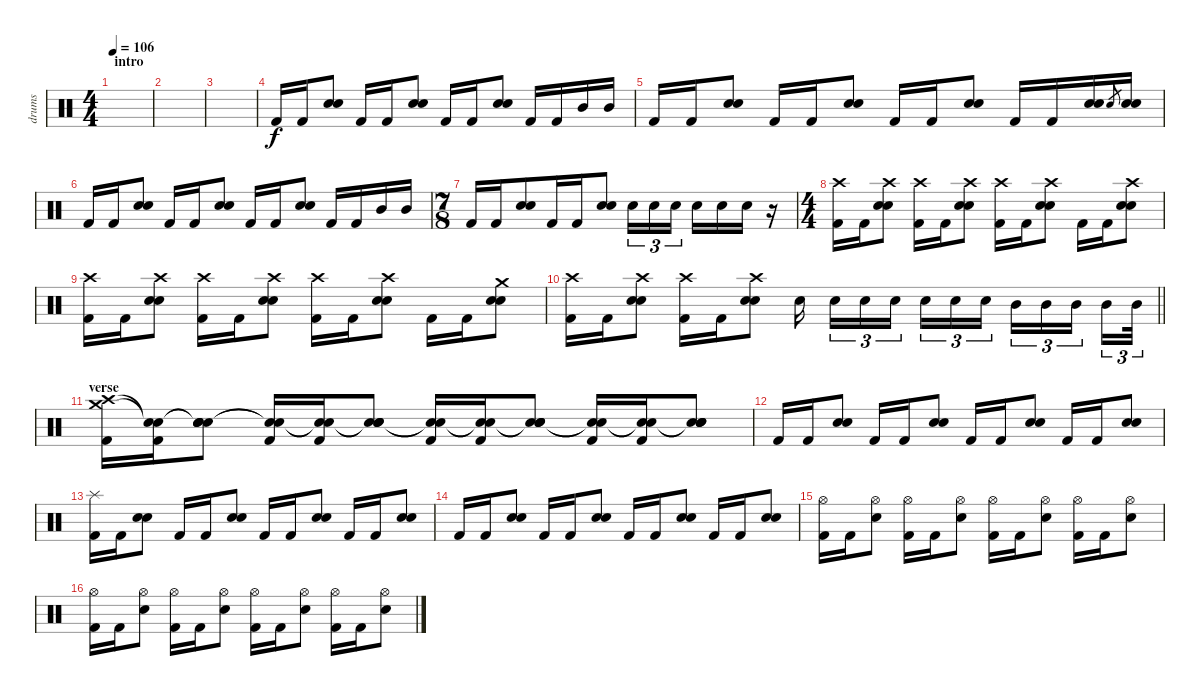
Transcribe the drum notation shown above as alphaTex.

\track ("drums" "drums") {instrument percussion}
\staff {score}
\articulation defaults
\ts (4 4)
\section ("" "intro")
\tempo 106
\clef neutral
\ks c
|
|
|
"Kick (hit) 2".16 "Kick (hit) 2".16 ("Snare (hit) 2" "Snare (hit) 2").8 "Kick (hit) 2".16 "Kick (hit) 2".16 ("Snare (hit) 2" "Snare (hit) 2").8 "Kick (hit) 2".16 "Kick (hit) 2".16 ("Snare (hit) 2" "Snare (hit) 2").8 "Kick (hit) 2".16 "Kick (hit) 2".16 "Mid Tom (hit)".16 "Mid Tom (hit)".16 |
"Kick (hit) 2".16 "Kick (hit) 2".16 ("Snare (hit) 2" "Snare (hit) 2").8 "Kick (hit) 2".16 "Kick (hit) 2".16 ("Snare (hit) 2" "Snare (hit) 2").8 "Kick (hit) 2".16 "Kick (hit) 2".16 ("Snare (hit) 2" "Snare (hit) 2").8 "Kick (hit) 2".16 "Kick (hit) 2".16 ("Snare (hit) 2" "Snare (hit) 2").16 "Snare (hit) 2".8{gr} ("Snare (hit) 2" "Snare (hit) 2").16 |
"Kick (hit) 2".16 "Kick (hit) 2".16 ("Snare (hit) 2" "Snare (hit) 2").8 "Kick (hit) 2".16 "Kick (hit) 2".16 ("Snare (hit) 2" "Snare (hit) 2").8 "Kick (hit) 2".16 "Kick (hit) 2".16 ("Snare (hit) 2" "Snare (hit) 2").8 "Kick (hit) 2".16 "Kick (hit) 2".16 "Mid Tom (hit)".16 "Mid Tom (hit)".16 |
\ts (7 8)
"Kick (hit) 2".16 "Kick (hit) 2".16 ("Snare (hit) 2" "Snare (hit) 2").8 "Kick (hit) 2".16 "Kick (hit) 2".16 ("Snare (hit) 2" "Snare (hit) 2").8 "Snare (hit) 2".16{tu (3 2)} "Snare (hit) 2".16{tu (3 2)} "Snare (hit) 2".16{tu (3 2)} "Snare (hit) 2".16 "Snare (hit) 2".16 "Snare (hit) 2".16 r.16 |
\ts (4 4)
("Crash high (hit)" "Kick (hit) 2").16 "Kick (hit) 2".16 ("Crash high (hit)" "Snare (hit) 2" "Snare (hit) 2").8 ("Crash high (hit)" "Kick (hit) 2").16 "Kick (hit) 2".16 ("Crash high (hit)" "Snare (hit) 2" "Snare (hit) 2").8 ("Crash high (hit)" "Kick (hit) 2").16 "Kick (hit) 2".16 ("Crash high (hit)" "Snare (hit) 2" "Snare (hit) 2").8 "Kick (hit) 2".16 "Kick (hit) 2".16 ("Crash high (hit)" "Snare (hit) 2" "Snare (hit) 2").8 |
("Crash high (hit)" "Kick (hit) 2").16 "Kick (hit) 2".16 ("Crash high (hit)" "Snare (hit) 2" "Snare (hit) 2").8 ("Crash high (hit)" "Kick (hit) 2").16 "Kick (hit) 2".16 ("Crash high (hit)" "Snare (hit) 2" "Snare (hit) 2").8 ("Crash high (hit)" "Kick (hit) 2").16 "Kick (hit) 2".16 ("Crash high (hit)" "Snare (hit) 2" "Snare (hit) 2").8 "Kick (hit) 2".16 "Kick (hit) 2".16 ("Crash medium (hit)" "Snare (hit) 2" "Snare (hit) 2").8 |
\barLineRight lightlight
("Crash high (hit)" "Kick (hit) 2").16 "Kick (hit) 2".16 ("Crash high (hit)" "Snare (hit) 2" "Snare (hit) 2").8 ("Crash high (hit)" "Kick (hit) 2").16 "Kick (hit) 2".16 ("Crash high (hit)" "Snare (hit) 2" "Snare (hit) 2").8 "Snare (hit) 2".16 "Snare (hit) 2".16{tu (3 2)} "Snare (hit) 2".16{tu (3 2)} "Snare (hit) 2".16{tu (3 2)} "Snare (hit) 2".16{tu (3 2)} "Snare (hit) 2".16{tu (3 2)} "Snare (hit) 2".16{tu (3 2)} "Mid Tom (hit)".16{tu (3 2)} "Mid Tom (hit)".16{tu (3 2)} "Mid Tom (hit)".16{tu (3 2)} "Mid Tom (hit)".16{tu (3 2)} "Mid Tom (hit)".32{tu (3 2)} |
\section ("" "verse")
("Crash medium (hit)" "Crash high (hit)" "Kick (hit) 2").16 ("Snare (hit)"{t} "Snare (hit)"{t} "Kick (hit) 2").16 ("Snare (hit)"{t} "Snare (hit)"{t} "Snare (hit) 2" "Snare (hit) 2").8 ("Snare (hit)"{t} "Snare (hit)"{t} "Kick (hit) 2").16 ("Snare (hit)"{t} "Snare (hit)"{t} "Kick (hit) 2").16 ("Snare (hit)"{t} "Snare (hit)"{t} "Snare (hit) 2" "Snare (hit) 2").8 ("Snare (hit)"{t} "Snare (hit)"{t} "Kick (hit) 2").16 ("Snare (hit)"{t} "Snare (hit)"{t} "Kick (hit) 2").16 ("Snare (hit)"{t} "Snare (hit)"{t} "Snare (hit) 2" "Snare (hit) 2").8 ("Snare (hit)"{t} "Snare (hit)"{t} "Kick (hit) 2").16 ("Snare (hit)"{t} "Snare (hit)"{t} "Kick (hit) 2").16 ("Snare (hit)"{t} "Snare (hit)"{t} "Snare (hit) 2" "Snare (hit) 2").8 |
"Kick (hit) 2".16 "Kick (hit) 2".16 ("Snare (hit) 2" "Snare (hit) 2").8 "Kick (hit) 2".16 "Kick (hit) 2".16 ("Snare (hit) 2" "Snare (hit) 2").8 "Kick (hit) 2".16 "Kick (hit) 2".16 ("Snare (hit) 2" "Snare (hit) 2").8 "Kick (hit) 2".16 "Kick (hit) 2".16 ("Snare (hit) 2" "Snare (hit) 2").8 |
("Splash (hit)" "Kick (hit) 2").16 "Kick (hit) 2".16 ("Snare (hit) 2" "Snare (hit) 2").8 "Kick (hit) 2".16 "Kick (hit) 2".16 ("Snare (hit) 2" "Snare (hit) 2").8 "Kick (hit) 2".16 "Kick (hit) 2".16 ("Snare (hit) 2" "Snare (hit) 2").8 "Kick (hit) 2".16 "Kick (hit) 2".16 ("Snare (hit) 2" "Snare (hit) 2").8 |
"Kick (hit) 2".16 "Kick (hit) 2".16 ("Snare (hit) 2" "Snare (hit) 2").8 "Kick (hit) 2".16 "Kick (hit) 2".16 ("Snare (hit) 2" "Snare (hit) 2").8 "Kick (hit) 2".16 "Kick (hit) 2".16 ("Snare (hit) 2" "Snare (hit) 2").8 "Kick (hit) 2".16 "Kick (hit) 2".16 ("Snare (hit) 2" "Snare (hit) 2").8 |
("Hi-Hat (open)" "Kick (hit) 2").16 "Kick (hit) 2".16 ("Hi-Hat (open)" "Snare (hit) 2").8 ("Hi-Hat (open)" "Kick (hit) 2").16 "Kick (hit) 2".16 ("Hi-Hat (open)" "Snare (hit) 2").8 ("Hi-Hat (open)" "Kick (hit) 2").16 "Kick (hit) 2".16 ("Hi-Hat (open)" "Snare (hit) 2").8 ("Hi-Hat (open)" "Kick (hit) 2").16 "Kick (hit) 2".16 ("Hi-Hat (open)" "Snare (hit) 2").8 |
("Hi-Hat (open)" "Kick (hit) 2").16 "Kick (hit) 2".16 ("Hi-Hat (open)" "Snare (hit) 2").8 ("Hi-Hat (open)" "Kick (hit) 2").16 "Kick (hit) 2".16 ("Hi-Hat (open)" "Snare (hit) 2").8 ("Hi-Hat (open)" "Kick (hit) 2").16 "Kick (hit) 2".16 ("Hi-Hat (open)" "Snare (hit) 2").8 ("Hi-Hat (open)" "Kick (hit) 2").16 "Kick (hit) 2".16 ("Hi-Hat (open)" "Snare (hit) 2").8
